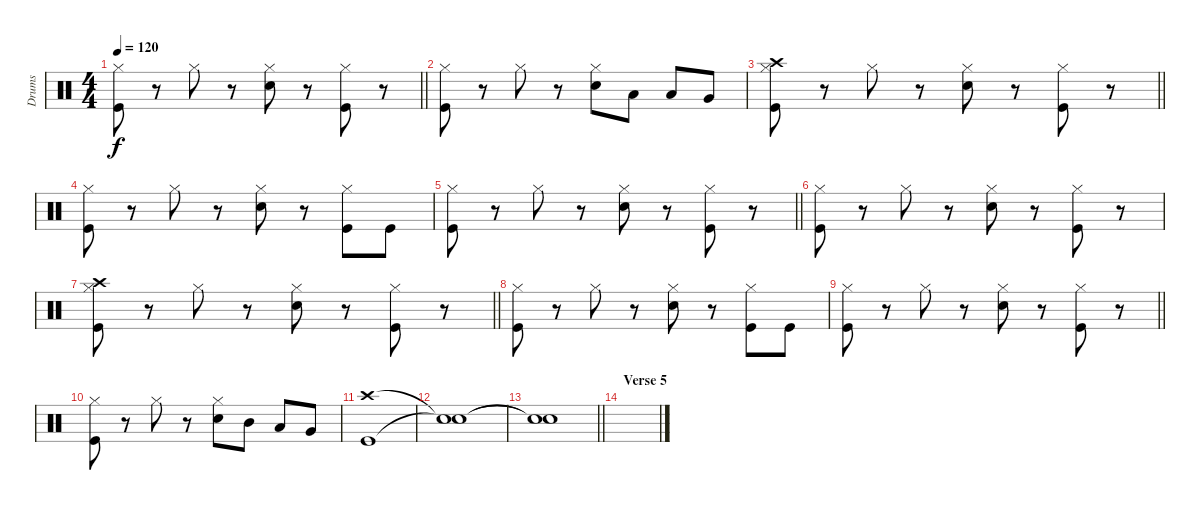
\track ("Drums" "Drums") {instrument percussion}
\staff {score}
\articulation defaults
\ts (4 4)
\tempo 120
\clef neutral
\barLineRight lightlight
\ks c
("Hi-Hat (closed)" "Kick (hit)").8{dy f} r.8 "Hi-Hat (closed)".8 r.8 ("Hi-Hat (closed)" "Snare (hit) 2").8 r.8 ("Hi-Hat (closed)" "Kick (hit)").8 r.8 |
("Hi-Hat (closed)" "Kick (hit)").8 r.8 "Hi-Hat (closed)".8 r.8 ("Hi-Hat (closed)" "Snare (hit) 2").8 "Low Tom (hit)".8 "Low Tom (hit)".8 "Very Low Tom (hit)".8 |
\barLineRight lightlight
("Crash high (hit)" "Hi-Hat (closed)" "Kick (hit)").8 r.8 "Hi-Hat (closed)".8 r.8 ("Hi-Hat (closed)" "Snare (hit) 2").8 r.8 ("Hi-Hat (closed)" "Kick (hit)").8 r.8 |
("Hi-Hat (closed)" "Kick (hit)").8 r.8 "Hi-Hat (closed)".8 r.8 ("Hi-Hat (closed)" "Snare (hit) 2").8 r.8 ("Hi-Hat (closed)" "Kick (hit)").8 "Kick (hit)".8 |
\barLineRight lightlight
("Hi-Hat (closed)" "Kick (hit)").8 r.8 "Hi-Hat (closed)".8 r.8 ("Hi-Hat (closed)" "Snare (hit) 2").8 r.8 ("Hi-Hat (closed)" "Kick (hit)").8 r.8 |
("Hi-Hat (closed)" "Kick (hit)").8 r.8 "Hi-Hat (closed)".8 r.8 ("Hi-Hat (closed)" "Snare (hit) 2").8 r.8 ("Hi-Hat (closed)" "Kick (hit)").8 r.8 |
\barLineRight lightlight
("Crash high (hit)" "Hi-Hat (closed)" "Kick (hit)").8 r.8 "Hi-Hat (closed)".8 r.8 ("Hi-Hat (closed)" "Snare (hit) 2").8 r.8 ("Hi-Hat (closed)" "Kick (hit)").8 r.8 |
("Hi-Hat (closed)" "Kick (hit)").8 r.8 "Hi-Hat (closed)".8 r.8 ("Hi-Hat (closed)" "Snare (hit) 2").8 r.8 ("Hi-Hat (closed)" "Kick (hit)").8 "Kick (hit)".8 |
\barLineRight lightlight
("Hi-Hat (closed)" "Kick (hit)").8 r.8 "Hi-Hat (closed)".8 r.8 ("Hi-Hat (closed)" "Snare (hit) 2").8 r.8 ("Hi-Hat (closed)" "Kick (hit)").8 r.8 |
("Hi-Hat (closed)" "Kick (hit)").8 r.8 "Hi-Hat (closed)".8 r.8 ("Hi-Hat (closed)" "Snare (hit) 2").8 "Mid Tom (hit)".8 "Low Tom (hit)".8 "Very Low Tom (hit)".8 |
("Crash high (hit)" "Kick (hit)").1 |
("Snare (hit)"{t} "Snare (hit)"{t}).1 |
\barLineRight lightlight
("Snare (hit)"{t} "Snare (hit)"{t}).1 |
\section ("" "Verse 5")
